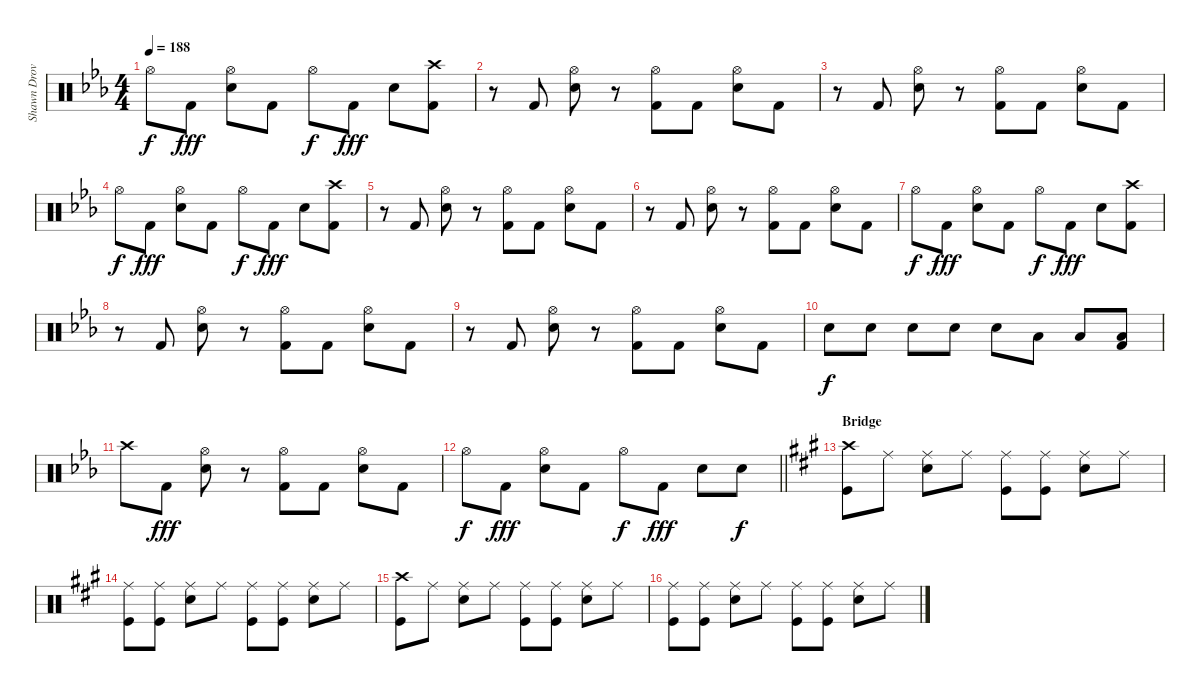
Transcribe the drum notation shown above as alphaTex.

\track ("Shawn Drover" "Shawn Drov") {instrument percussion}
\staff {score}
\articulation defaults
\ts (4 4)
\tempo 188
\clef neutral
\ks eb "Hi-Hat (open)".8{dy f} "Kick (hit) 2".8{dy fff}
("Hi-Hat (open)" "Snare (hit) 2").8 "Kick (hit) 2".8 "Hi-Hat (open)".8{dy f} "Kick (hit) 2".8{dy fff} "Snare (hit) 2".8 ("Crash high (hit)" "Kick (hit) 2").8 |
r.8 "Kick (hit) 2".8 ("Hi-Hat (open)" "Snare (hit) 2").8 r.8 ("Hi-Hat (open)" "Kick (hit) 2").8 "Kick (hit) 2".8 ("Hi-Hat (open)" "Snare (hit) 2").8 "Kick (hit) 2".8 |
r.8 "Kick (hit) 2".8 ("Hi-Hat (open)" "Snare (hit) 2").8 r.8 ("Hi-Hat (open)" "Kick (hit) 2").8 "Kick (hit) 2".8 ("Hi-Hat (open)" "Snare (hit) 2").8 "Kick (hit) 2".8 |
"Hi-Hat (open)".8{dy f} "Kick (hit) 2".8{dy fff} ("Hi-Hat (open)" "Snare (hit) 2").8 "Kick (hit) 2".8 "Hi-Hat (open)".8{dy f} "Kick (hit) 2".8{dy fff} "Snare (hit) 2".8 ("Crash high (hit)" "Kick (hit) 2").8 |
r.8 "Kick (hit) 2".8 ("Hi-Hat (open)" "Snare (hit) 2").8 r.8 ("Hi-Hat (open)" "Kick (hit) 2").8 "Kick (hit) 2".8 ("Hi-Hat (open)" "Snare (hit) 2").8 "Kick (hit) 2".8 |
r.8 "Kick (hit) 2".8 ("Hi-Hat (open)" "Snare (hit) 2").8 r.8 ("Hi-Hat (open)" "Kick (hit) 2").8 "Kick (hit) 2".8 ("Hi-Hat (open)" "Snare (hit) 2").8 "Kick (hit) 2".8 |
"Hi-Hat (open)".8{dy f} "Kick (hit) 2".8{dy fff} ("Hi-Hat (open)" "Snare (hit) 2").8 "Kick (hit) 2".8 "Hi-Hat (open)".8{dy f} "Kick (hit) 2".8{dy fff} "Snare (hit) 2".8 ("Crash high (hit)" "Kick (hit) 2").8 |
r.8 "Kick (hit) 2".8 ("Hi-Hat (open)" "Snare (hit) 2").8 r.8 ("Hi-Hat (open)" "Kick (hit) 2").8 "Kick (hit) 2".8 ("Hi-Hat (open)" "Snare (hit) 2").8 "Kick (hit) 2".8 |
r.8 "Kick (hit) 2".8 ("Hi-Hat (open)" "Snare (hit) 2").8 r.8 ("Hi-Hat (open)" "Kick (hit) 2").8 "Kick (hit) 2".8 ("Hi-Hat (open)" "Snare (hit) 2").8 "Kick (hit) 2".8 |
"Snare (hit) 2".8{dy f} "Snare (hit) 2".8 "Snare (hit) 2".8 "Snare (hit) 2".8 "Snare (hit) 2".8 "Low Tom (hit)".8 "Low Tom (hit)".8 ("Low Tom (hit)" "Kick (hit) 2").8 |
"Crash high (hit)".8 "Kick (hit) 2".8{dy fff} ("Hi-Hat (open)" "Snare (hit) 2").8 r.8 ("Hi-Hat (open)" "Kick (hit) 2").8 "Kick (hit) 2".8 ("Hi-Hat (open)" "Snare (hit) 2").8 "Kick (hit) 2".8 |
\barLineRight lightlight "Hi-Hat (open)".8{dy f} "Kick (hit) 2".8{dy fff}
("Hi-Hat (open)" "Snare (hit) 2").8 "Kick (hit) 2".8 "Hi-Hat (open)".8{dy f} "Kick (hit) 2".8{dy fff} "Snare (hit) 2".8 "Snare (hit) 2".8{dy f} |
\section ("" "Bridge")
\ks a
("Crash high (hit)" "Kick (hit)").8 "Ride (middle)".8 ("Ride (middle)" "Snare (hit) 2").8 "Ride (middle)".8 ("Ride (middle)" "Kick (hit)").8 ("Ride (middle)" "Kick (hit)").8 ("Ride (middle)" "Snare (hit) 2").8 "Ride (middle)".8 |
("Ride (middle)" "Kick (hit)").8 ("Ride (middle)" "Kick (hit)").8 ("Ride (middle)" "Snare (hit) 2").8 "Ride (middle)".8 ("Ride (middle)" "Kick (hit)").8 ("Ride (middle)" "Kick (hit)").8 ("Ride (middle)" "Snare (hit) 2").8 "Ride (middle)".8 |
("Crash high (hit)" "Kick (hit)").8 "Ride (middle)".8 ("Ride (middle)" "Snare (hit) 2").8 "Ride (middle)".8 ("Ride (middle)" "Kick (hit)").8 ("Ride (middle)" "Kick (hit)").8 ("Ride (middle)" "Snare (hit) 2").8 "Ride (middle)".8 |
("Ride (middle)" "Kick (hit)").8 ("Ride (middle)" "Kick (hit)").8 ("Ride (middle)" "Snare (hit) 2").8 "Ride (middle)".8 ("Ride (middle)" "Kick (hit)").8 ("Ride (middle)" "Kick (hit)").8 ("Ride (middle)" "Snare (hit) 2").8 "Ride (middle)".8
